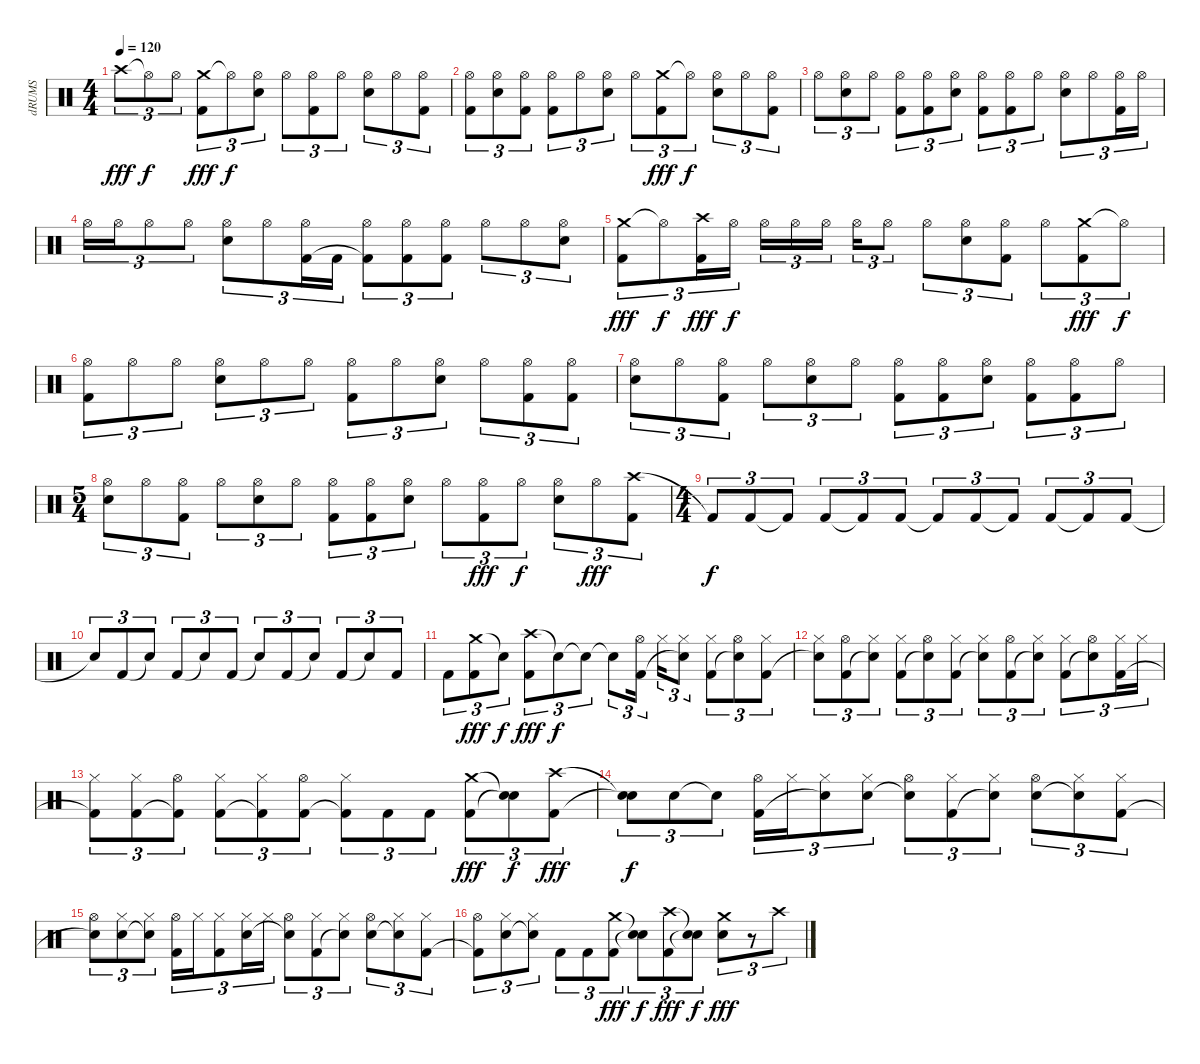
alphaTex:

\track ("dRUMS" "dRUMS") {instrument percussion}
\staff {score}
\articulation defaults
\ts (4 4)
\tempo 120
\clef neutral
\ks c "Crash high (hit)".8{tu (3 2) dy fff} "Hi-Hat (open)"{t}.8{tu (3 2) dy f} "Hi-Hat (open)".8{tu (3 2)}
("Crash medium (hit)" "Kick (hit) 2").8{tu (3 2) dy fff} "Hi-Hat (open)"{t}.8{tu (3 2) dy f} ("Hi-Hat (open)" "Electric Snare (hit)").8{tu (3 2)} "Hi-Hat (open)".8{tu (3 2)} ("Hi-Hat (open)" "Kick (hit) 2").8{tu (3 2)} "Hi-Hat (open)".8{tu (3 2)} ("Hi-Hat (open)" "Electric Snare (hit)").8{tu (3 2)} "Hi-Hat (open)".8{tu (3 2)} ("Hi-Hat (open)" "Kick (hit) 2").8{tu (3 2)} |
("Hi-Hat (open)" "Kick (hit) 2").8{tu (3 2)} ("Hi-Hat (open)" "Electric Snare (hit)").8{tu (3 2)} ("Hi-Hat (open)" "Kick (hit) 2").8{tu (3 2)} ("Hi-Hat (open)" "Kick (hit) 2").8{tu (3 2)} "Hi-Hat (open)".8{tu (3 2)} ("Hi-Hat (open)" "Electric Snare (hit)").8{tu (3 2)} "Hi-Hat (open)".8{tu (3 2)} ("Crash medium (hit)" "Kick (hit) 2").8{tu (3 2) dy fff} "Hi-Hat (open)"{t}.8{tu (3 2) dy f} ("Hi-Hat (open)" "Electric Snare (hit)").8{tu (3 2)} "Hi-Hat (open)".8{tu (3 2)} ("Hi-Hat (open)" "Kick (hit) 2").8{tu (3 2)} |
"Hi-Hat (open)".8{tu (3 2)} ("Hi-Hat (open)" "Electric Snare (hit)").8{tu (3 2)} "Hi-Hat (open)".8{tu (3 2)} ("Hi-Hat (open)" "Kick (hit) 2").8{tu (3 2)} ("Hi-Hat (open)" "Kick (hit) 2").8{tu (3 2)} ("Hi-Hat (open)" "Electric Snare (hit)").8{tu (3 2)} ("Hi-Hat (open)" "Kick (hit) 2").8{tu (3 2)} ("Hi-Hat (open)" "Kick (hit) 2").8{tu (3 2)} "Hi-Hat (open)".8{tu (3 2)} ("Hi-Hat (open)" "Electric Snare (hit)").8{tu (3 2)} "Hi-Hat (open)".8{tu (3 2)} ("Hi-Hat (open)" "Kick (hit) 2").16{tu (3 2)} "Hi-Hat (open)".16{tu (3 2)} |
"Hi-Hat (open)".16{tu (3 2)} "Hi-Hat (open)".16{tu (3 2)} "Hi-Hat (open)".8{tu (3 2)} "Hi-Hat (open)".8{tu (3 2)} ("Hi-Hat (open)" "Electric Snare (hit)").8{tu (3 2)} "Hi-Hat (open)".8{tu (3 2)} ("Hi-Hat (open)" "Kick (hit) 2").16{tu (3 2)} "Kick (hit) 2".16{tu (3 2)} ("Hi-Hat (open)" "Kick (hit) 2"{t}).8{tu (3 2)} ("Hi-Hat (open)" "Kick (hit) 2").8{tu (3 2)} ("Hi-Hat (open)" "Kick (hit) 2").8{tu (3 2)} "Hi-Hat (open)".8{tu (3 2)} "Hi-Hat (open)".8{tu (3 2)} ("Hi-Hat (open)" "Electric Snare (hit)").8{tu (3 2)} |
("Crash medium (hit)" "Kick (hit) 2").8{tu (3 2) dy fff} "Hi-Hat (open)"{t}.8{tu (3 2) dy f} ("Crash high (hit)" "Kick (hit) 2").16{tu (3 2) dy fff} "Hi-Hat (open)".16{tu (3 2) dy f} "Hi-Hat (open)".16{tu (3 2)} "Hi-Hat (open)".16{tu (3 2)} "Hi-Hat (open)".16{tu (3 2)} "Hi-Hat (open)".16{tu (3 2)} "Hi-Hat (open)".8{tu (3 2)} "Hi-Hat (open)".8{tu (3 2)} ("Hi-Hat (open)" "Electric Snare (hit)").8{tu (3 2)} ("Hi-Hat (open)" "Kick (hit) 2").8{tu (3 2)} "Hi-Hat (open)".8{tu (3 2)} ("Crash medium (hit)" "Kick (hit) 2").8{tu (3 2) dy fff} "Hi-Hat (open)"{t}.8{tu (3 2) dy f} |
("Hi-Hat (open)" "Kick (hit) 2").8{tu (3 2)} "Hi-Hat (open)".8{tu (3 2)} "Hi-Hat (open)".8{tu (3 2)} ("Hi-Hat (open)" "Electric Snare (hit)").8{tu (3 2)} "Hi-Hat (open)".8{tu (3 2)} "Hi-Hat (open)".8{tu (3 2)} ("Hi-Hat (open)" "Kick (hit) 2").8{tu (3 2)} "Hi-Hat (open)".8{tu (3 2)} ("Hi-Hat (open)" "Electric Snare (hit)").8{tu (3 2)} "Hi-Hat (open)".8{tu (3 2)} ("Hi-Hat (open)" "Kick (hit) 2").8{tu (3 2)} ("Hi-Hat (open)" "Kick (hit) 2").8{tu (3 2)} |
("Hi-Hat (open)" "Electric Snare (hit)").8{tu (3 2)} "Hi-Hat (open)".8{tu (3 2)} ("Hi-Hat (open)" "Kick (hit) 2").8{tu (3 2)} "Hi-Hat (open)".8{tu (3 2)} ("Hi-Hat (open)" "Electric Snare (hit)").8{tu (3 2)} "Hi-Hat (open)".8{tu (3 2)} ("Hi-Hat (open)" "Kick (hit) 2").8{tu (3 2)} ("Hi-Hat (open)" "Kick (hit) 2").8{tu (3 2)} ("Hi-Hat (open)" "Electric Snare (hit)").8{tu (3 2)} ("Hi-Hat (open)" "Kick (hit) 2").8{tu (3 2)} ("Hi-Hat (open)" "Kick (hit) 2").8{tu (3 2)} "Hi-Hat (open)".8{tu (3 2)} |
\ts (5 4)
("Hi-Hat (open)" "Electric Snare (hit)").8{tu (3 2)} "Hi-Hat (open)".8{tu (3 2)} ("Hi-Hat (open)" "Kick (hit) 2").8{tu (3 2)} "Hi-Hat (open)".8{tu (3 2)} ("Hi-Hat (open)" "Electric Snare (hit)").8{tu (3 2)} "Hi-Hat (open)".8{tu (3 2)} ("Hi-Hat (open)" "Kick (hit) 2").8{tu (3 2)} ("Hi-Hat (open)" "Kick (hit) 2").8{tu (3 2)} ("Hi-Hat (open)" "Electric Snare (hit)").8{tu (3 2)} "Hi-Hat (open)".8{tu (3 2)} ("Hi-Hat (open)" "Kick (hit) 2").8{tu (3 2) dy fff} "Hi-Hat (open)".8{tu (3 2) dy f} ("Hi-Hat (open)" "Electric Snare (hit)").8{tu (3 2)} "Hi-Hat (open)".8{tu (3 2) dy fff} ("Crash high (hit)" "Kick (hit) 2").8{tu (3 2)} |
\ts (4 4)
"Kick (hit) 2"{t}.8{tu (3 2) dy f} "Kick (hit) 2".8{tu (3 2)} "Kick (hit) 2"{t}.8{tu (3 2)} "Kick (hit) 2".8{tu (3 2)} "Kick (hit) 2"{t}.8{tu (3 2)} "Kick (hit) 2".8{tu (3 2)} "Kick (hit) 2"{t}.8{tu (3 2)} "Kick (hit) 2".8{tu (3 2)} "Kick (hit) 2"{t}.8{tu (3 2)} "Kick (hit) 2".8{tu (3 2)} "Kick (hit) 2"{t}.8{tu (3 2)} "Kick (hit) 2".8{tu (3 2)} |
"Snare (hit)"{t}.8{tu (3 2)} "Kick (hit) 2".8{tu (3 2)} "Snare (hit)"{t}.8{tu (3 2)} "Kick (hit) 2".8{tu (3 2)} "Snare (hit)"{t}.8{tu (3 2)} "Kick (hit) 2".8{tu (3 2)} "Snare (hit)"{t}.8{tu (3 2)} "Kick (hit) 2".8{tu (3 2)} "Snare (hit)"{t}.8{tu (3 2)} "Kick (hit) 2".8{tu (3 2)} "Snare (hit)"{t}.8{tu (3 2)} "Kick (hit) 2".8{tu (3 2)} |
"Kick (hit) 2".8{tu (3 2)} ("Crash medium (hit)" "Kick (hit) 2").8{tu (3 2) dy fff} "Snare (hit)"{t}.8{tu (3 2) dy f} ("Crash high (hit)" "Kick (hit) 2").8{tu (3 2) dy fff} "Snare (hit)"{t}.8{tu (3 2) dy f} "Electric Snare (hit)"{t}.8{tu (3 2)} "Snare (hit)"{t}.8{tu (3 2)} ("Hi-Hat (open)" "Kick (hit) 2").16{tu (3 2)} "Hi-Hat (closed)".16{tu (3 2)} ("Hi-Hat (closed)" "Snare (hit)"{t}).8{tu (3 2)} ("Hi-Hat (closed)" "Kick (hit) 2").8{tu (3 2)} ("Hi-Hat (open)" "Snare (hit)"{t}).8{tu (3 2)} ("Hi-Hat (closed)" "Kick (hit) 2").8{tu (3 2)} |
("Hi-Hat (closed)" "Snare (hit)"{t}).8{tu (3 2)} ("Hi-Hat (open)" "Kick (hit) 2").8{tu (3 2)} ("Hi-Hat (closed)" "Snare (hit)"{t}).8{tu (3 2)} ("Hi-Hat (closed)" "Kick (hit) 2").8{tu (3 2)} ("Hi-Hat (open)" "Snare (hit)"{t}).8{tu (3 2)} ("Hi-Hat (closed)" "Kick (hit) 2").8{tu (3 2)} ("Hi-Hat (closed)" "Snare (hit)"{t}).8{tu (3 2)} ("Hi-Hat (open)" "Kick (hit) 2").8{tu (3 2)} ("Hi-Hat (closed)" "Snare (hit)"{t}).8{tu (3 2)} ("Hi-Hat (closed)" "Kick (hit) 2").8{tu (3 2)} ("Hi-Hat (open)" "Snare (hit)"{t}).8{tu (3 2)} ("Hi-Hat (closed)" "Kick (hit) 2").16{tu (3 2)} "Hi-Hat (closed)".16{tu (3 2)} |
("Hi-Hat (closed)" "Kick (hit) 2"{t}).8{tu (3 2)} ("Hi-Hat (closed)" "Kick (hit) 2").8{tu (3 2)} ("Hi-Hat (open)" "Kick (hit) 2"{t}).8{tu (3 2)} ("Hi-Hat (closed)" "Kick (hit) 2").8{tu (3 2)} ("Hi-Hat (closed)" "Kick (hit) 2"{t}).8{tu (3 2)} ("Hi-Hat (open)" "Kick (hit) 2").8{tu (3 2)} ("Hi-Hat (closed)" "Kick (hit) 2"{t}).8{tu (3 2)} "Kick (hit) 2".8{tu (3 2)} "Kick (hit) 2".8{tu (3 2)} ("Crash medium (hit)" "Kick (hit) 2").8{tu (3 2) dy fff} ("Snare (hit)"{t} "Snare (hit)"{t}).8{tu (3 2) dy f} ("Crash high (hit)" "Kick (hit) 2").8{tu (3 2) dy fff} |
("Snare (hit)"{t} "Snare (hit)"{t}).8{tu (3 2) dy f} "Electric Snare (hit)".8{tu (3 2)} "Snare (hit)"{t}.8{tu (3 2)} ("Hi-Hat (open)" "Kick (hit) 2").16{tu (3 2)} "Hi-Hat (closed)".16{tu (3 2)} ("Hi-Hat (closed)" "Snare (hit)"{t}).8{tu (3 2)} ("Hi-Hat (closed)" "Electric Snare (hit)").8{tu (3 2)} ("Hi-Hat (open)" "Snare (hit)"{t}).8{tu (3 2)} ("Hi-Hat (closed)" "Kick (hit) 2").8{tu (3 2)} ("Hi-Hat (closed)" "Snare (hit)"{t}).8{tu (3 2)} ("Hi-Hat (open)" "Electric Snare (hit)").8{tu (3 2)} ("Hi-Hat (closed)" "Snare (hit)"{t}).8{tu (3 2)} ("Hi-Hat (closed)" "Kick (hit) 2").8{tu (3 2)} |
("Hi-Hat (open)" "Snare (hit)"{t}).8{tu (3 2)} ("Hi-Hat (closed)" "Electric Snare (hit)").8{tu (3 2)} ("Hi-Hat (closed)" "Snare (hit)"{t}).8{tu (3 2)} ("Hi-Hat (open)" "Kick (hit) 2").16{tu (3 2)} "Hi-Hat (closed)".16{tu (3 2)} ("Hi-Hat (closed)" "Kick (hit) 2").8{tu (3 2)} ("Hi-Hat (closed)" "Electric Snare (hit)").16{tu (3 2)} "Hi-Hat (closed)".16{tu (3 2)} ("Hi-Hat (open)" "Snare (hit)"{t}).8{tu (3 2)} ("Hi-Hat (closed)" "Kick (hit) 2").8{tu (3 2)} ("Hi-Hat (closed)" "Snare (hit)"{t}).8{tu (3 2)} ("Hi-Hat (open)" "Electric Snare (hit)").8{tu (3 2)} ("Hi-Hat (closed)" "Snare (hit)"{t}).8{tu (3 2)} ("Hi-Hat (closed)" "Kick (hit) 2").8{tu (3 2)} |
("Hi-Hat (open)" "Kick (hit) 2"{t}).8{tu (3 2)} ("Hi-Hat (closed)" "Electric Snare (hit)").8{tu (3 2)} ("Hi-Hat (closed)" "Snare (hit)"{t}).8{tu (3 2)} "Kick (hit) 2".8{tu (3 2)} "Kick (hit) 2".8{tu (3 2)} ("Crash medium (hit)" "Kick (hit) 2").8{tu (3 2) dy fff} ("Snare (hit)"{t} "Snare (hit)"{t}).8{tu (3 2) dy f} ("Crash high (hit)" "Kick (hit) 2").8{tu (3 2) dy fff} ("Snare (hit)"{t} "Snare (hit)"{t}).8{tu (3 2) dy f} ("Crash medium (hit)" "Electric Snare (hit)").8{tu (3 2) dy fff} r.8{tu (3 2)} "Crash high (hit)".8{tu (3 2)}
